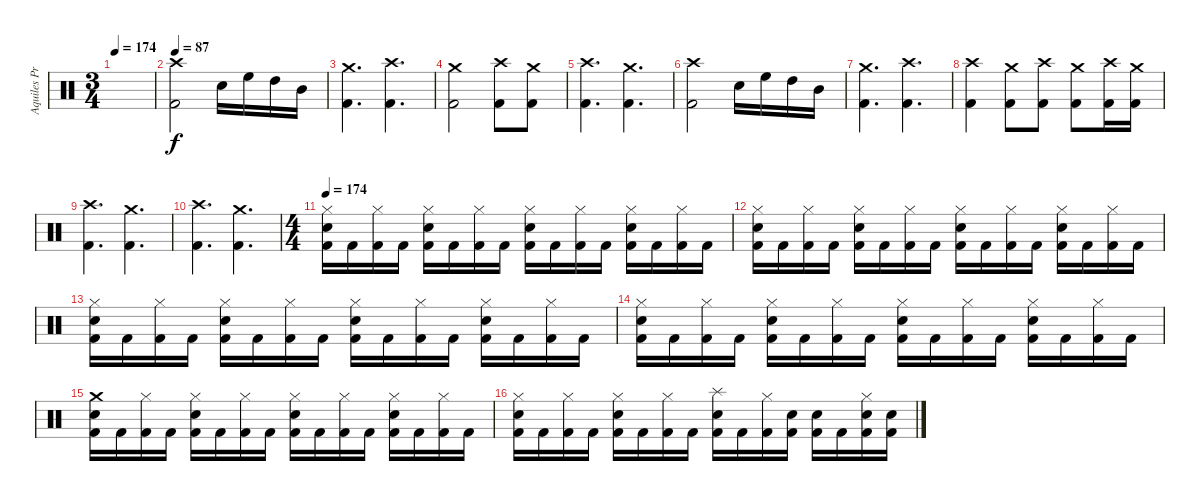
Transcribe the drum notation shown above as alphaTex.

\track ("Aquiles Priester" "Aquiles Pr") {instrument percussion}
\staff {score}
\articulation defaults
\ts (3 4)
\tempo 174
\clef neutral
\ks c
|
\tempo 87
("Crash high (hit)" "Kick (hit) 2").2 "Electric Snare (hit)".16 "High Floor Tom (hit)".16 "High Tom (hit)".16 "Mid Tom (hit)".16 |
("Crash medium (hit)" "Kick (hit) 2").4{d} ("Crash high (hit)" "Kick (hit) 2").4{d} |
("Crash medium (hit)" "Kick (hit) 2").2 ("Crash high (hit)" "Kick (hit) 2").8 ("Crash medium (hit)" "Kick (hit) 2").8 |
("Crash high (hit)" "Kick (hit) 2").4{d} ("Crash medium (hit)" "Kick (hit) 2").4{d} |
("Crash high (hit)" "Kick (hit) 2").2 "Electric Snare (hit)".16 "High Floor Tom (hit)".16 "High Tom (hit)".16 "Mid Tom (hit)".16 |
("Crash medium (hit)" "Kick (hit) 2").4{d} ("Crash high (hit)" "Kick (hit) 2").4{d} |
("Crash high (hit)" "Kick (hit) 2").4 ("Crash medium (hit)" "Kick (hit) 2").8 ("Crash high (hit)" "Kick (hit) 2").8 ("Crash medium (hit)" "Kick (hit) 2").8 ("Crash high (hit)" "Kick (hit) 2").16 ("Crash medium (hit)" "Kick (hit) 2").16 |
("Crash high (hit)" "Kick (hit) 2").4{d} ("Crash medium (hit)" "Kick (hit) 2").4{d} |
("Crash high (hit)" "Kick (hit) 2").4{d} ("Crash medium (hit)" "Kick (hit) 2").4{d} |
\ts (4 4)
\tempo 174
("Hi-Hat (closed)" "Electric Snare (hit)" "Kick (hit) 2").16 "Kick (hit) 2".16 ("Hi-Hat (closed)" "Kick (hit) 2").16 "Kick (hit) 2".16 ("Hi-Hat (closed)" "Electric Snare (hit)" "Kick (hit) 2").16 "Kick (hit) 2".16 ("Hi-Hat (closed)" "Kick (hit) 2").16 "Kick (hit) 2".16 ("Hi-Hat (closed)" "Electric Snare (hit)" "Kick (hit) 2").16 "Kick (hit) 2".16 ("Hi-Hat (closed)" "Kick (hit) 2").16 "Kick (hit) 2".16 ("Hi-Hat (closed)" "Electric Snare (hit)" "Kick (hit) 2").16 "Kick (hit) 2".16 ("Hi-Hat (closed)" "Kick (hit) 2").16 "Kick (hit) 2".16 |
("Hi-Hat (closed)" "Electric Snare (hit)" "Kick (hit) 2").16 "Kick (hit) 2".16 ("Hi-Hat (closed)" "Kick (hit) 2").16 "Kick (hit) 2".16 ("Hi-Hat (closed)" "Electric Snare (hit)" "Kick (hit) 2").16 "Kick (hit) 2".16 ("Hi-Hat (closed)" "Kick (hit) 2").16 "Kick (hit) 2".16 ("Hi-Hat (closed)" "Electric Snare (hit)" "Kick (hit) 2").16 "Kick (hit) 2".16 ("Hi-Hat (closed)" "Kick (hit) 2").16 "Kick (hit) 2".16 ("Hi-Hat (closed)" "Electric Snare (hit)" "Kick (hit) 2").16 "Kick (hit) 2".16 ("Hi-Hat (closed)" "Kick (hit) 2").16 "Kick (hit) 2".16 |
("Hi-Hat (closed)" "Electric Snare (hit)" "Kick (hit) 2").16 "Kick (hit) 2".16 ("Hi-Hat (closed)" "Kick (hit) 2").16 "Kick (hit) 2".16 ("Hi-Hat (closed)" "Electric Snare (hit)" "Kick (hit) 2").16 "Kick (hit) 2".16 ("Hi-Hat (closed)" "Kick (hit) 2").16 "Kick (hit) 2".16 ("Hi-Hat (closed)" "Electric Snare (hit)" "Kick (hit) 2").16 "Kick (hit) 2".16 ("Hi-Hat (closed)" "Kick (hit) 2").16 "Kick (hit) 2".16 ("Hi-Hat (closed)" "Electric Snare (hit)" "Kick (hit) 2").16 "Kick (hit) 2".16 ("Hi-Hat (closed)" "Kick (hit) 2").16 "Kick (hit) 2".16 |
("Hi-Hat (closed)" "Electric Snare (hit)" "Kick (hit) 2").16 "Kick (hit) 2".16 ("Hi-Hat (closed)" "Kick (hit) 2").16 "Kick (hit) 2".16 ("Hi-Hat (closed)" "Electric Snare (hit)" "Kick (hit) 2").16 "Kick (hit) 2".16 ("Hi-Hat (closed)" "Kick (hit) 2").16 "Kick (hit) 2".16 ("Hi-Hat (closed)" "Electric Snare (hit)" "Kick (hit) 2").16 "Kick (hit) 2".16 ("Hi-Hat (closed)" "Kick (hit) 2").16 "Kick (hit) 2".16 ("Hi-Hat (closed)" "Electric Snare (hit)" "Kick (hit) 2").16 "Kick (hit) 2".16 ("Hi-Hat (closed)" "Kick (hit) 2").16 "Kick (hit) 2".16 |
("Crash medium (hit)" "Electric Snare (hit)" "Kick (hit) 2").16 "Kick (hit) 2".16 ("Hi-Hat (closed)" "Kick (hit) 2").16 "Kick (hit) 2".16 ("Hi-Hat (closed)" "Electric Snare (hit)" "Kick (hit) 2").16 "Kick (hit) 2".16 ("Hi-Hat (closed)" "Kick (hit) 2").16 "Kick (hit) 2".16 ("Hi-Hat (closed)" "Electric Snare (hit)" "Kick (hit) 2").16 "Kick (hit) 2".16 ("Hi-Hat (closed)" "Kick (hit) 2").16 "Kick (hit) 2".16 ("Hi-Hat (closed)" "Electric Snare (hit)" "Kick (hit) 2").16 "Kick (hit) 2".16 ("Hi-Hat (closed)" "Kick (hit) 2").16 "Kick (hit) 2".16 |
("Hi-Hat (closed)" "Electric Snare (hit)" "Kick (hit) 2").16 "Kick (hit) 2".16 ("Hi-Hat (closed)" "Kick (hit) 2").16 "Kick (hit) 2".16 ("Hi-Hat (closed)" "Electric Snare (hit)" "Kick (hit) 2").16 "Kick (hit) 2".16 ("Hi-Hat (closed)" "Kick (hit) 2").16 "Kick (hit) 2".16 ("Splash (hit)" "Electric Snare (hit)" "Kick (hit) 2").16 "Kick (hit) 2".16 ("Hi-Hat (closed)" "Kick (hit) 2").16 ("Electric Snare (hit)" "Kick (hit) 2").16 ("Electric Snare (hit)" "Kick (hit) 2").16 "Kick (hit) 2".16 ("Hi-Hat (closed)" "Electric Snare (hit)" "Kick (hit) 2").16 ("Electric Snare (hit)" "Kick (hit) 2").16
